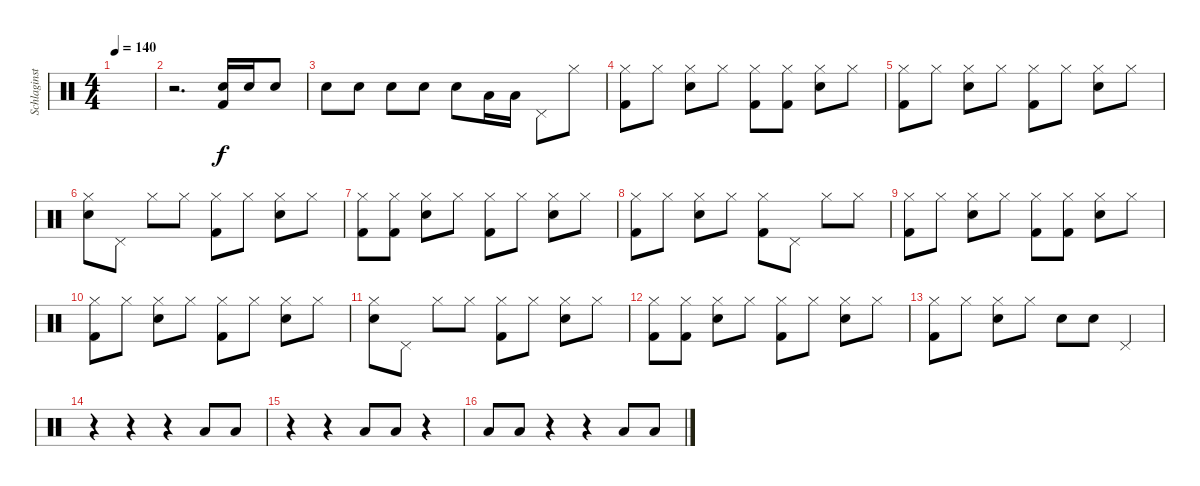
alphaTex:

\track ("Schlaginstrumente - Auswahl" "Schlaginst") {instrument percussion}
\staff {score}
\articulation defaults
\ts (4 4)
\tempo 140
\clef neutral
\ks c
|
r.2{d} ("Snare (hit) 2" "Kick (hit) 2").16 "Snare (hit) 2".16 "Snare (hit) 2".8 |
"Snare (hit) 2".8 "Snare (hit) 2".8 "Snare (hit) 2".8 "Snare (hit) 2".8 "Snare (hit) 2".8 "Low Tom (hit)".16 "Low Tom (hit)".16 "Pedal Hi-Hat (hit)".8 "Hi-Hat (closed)".8 |
("Hi-Hat (closed)" "Kick (hit) 2").8 "Hi-Hat (closed)".8 ("Hi-Hat (closed)" "Snare (hit) 2").8 "Hi-Hat (closed)".8 ("Hi-Hat (closed)" "Kick (hit) 2").8 ("Hi-Hat (closed)" "Kick (hit) 2").8 ("Hi-Hat (closed)" "Snare (hit) 2").8 "Hi-Hat (closed)".8 |
("Hi-Hat (closed)" "Kick (hit) 2").8 "Hi-Hat (closed)".8 ("Hi-Hat (closed)" "Snare (hit) 2").8 "Hi-Hat (closed)".8 ("Hi-Hat (closed)" "Kick (hit) 2").8 "Hi-Hat (closed)".8 ("Hi-Hat (closed)" "Snare (hit) 2").8 "Hi-Hat (closed)".8 |
("Hi-Hat (closed)" "Snare (hit) 2").8 "Pedal Hi-Hat (hit)".8 "Hi-Hat (closed)".8 "Hi-Hat (closed)".8 ("Hi-Hat (closed)" "Kick (hit) 2").8 "Hi-Hat (closed)".8 ("Hi-Hat (closed)" "Snare (hit) 2").8 "Hi-Hat (closed)".8 |
("Hi-Hat (closed)" "Kick (hit) 2").8 ("Hi-Hat (closed)" "Kick (hit) 2").8 ("Hi-Hat (closed)" "Snare (hit) 2").8 "Hi-Hat (closed)".8 ("Hi-Hat (closed)" "Kick (hit) 2").8 "Hi-Hat (closed)".8 ("Hi-Hat (closed)" "Snare (hit) 2").8 "Hi-Hat (closed)".8 |
("Hi-Hat (closed)" "Kick (hit) 2").8 "Hi-Hat (closed)".8 ("Hi-Hat (closed)" "Snare (hit) 2").8 "Hi-Hat (closed)".8 ("Hi-Hat (closed)" "Kick (hit) 2").8 "Pedal Hi-Hat (hit)".8 "Hi-Hat (closed)".8 "Hi-Hat (closed)".8 |
("Hi-Hat (closed)" "Kick (hit) 2").8 "Hi-Hat (closed)".8 ("Hi-Hat (closed)" "Snare (hit) 2").8 "Hi-Hat (closed)".8 ("Hi-Hat (closed)" "Kick (hit) 2").8 ("Hi-Hat (closed)" "Kick (hit) 2").8 ("Hi-Hat (closed)" "Snare (hit) 2").8 "Hi-Hat (closed)".8 |
("Hi-Hat (closed)" "Kick (hit) 2").8 "Hi-Hat (closed)".8 ("Hi-Hat (closed)" "Snare (hit) 2").8 "Hi-Hat (closed)".8 ("Hi-Hat (closed)" "Kick (hit) 2").8 "Hi-Hat (closed)".8 ("Hi-Hat (closed)" "Snare (hit) 2").8 "Hi-Hat (closed)".8 |
("Hi-Hat (closed)" "Snare (hit) 2").8 "Pedal Hi-Hat (hit)".8 "Hi-Hat (closed)".8 "Hi-Hat (closed)".8 ("Hi-Hat (closed)" "Kick (hit) 2").8 "Hi-Hat (closed)".8 ("Hi-Hat (closed)" "Snare (hit) 2").8 "Hi-Hat (closed)".8 |
("Hi-Hat (closed)" "Kick (hit) 2").8 ("Hi-Hat (closed)" "Kick (hit) 2").8 ("Hi-Hat (closed)" "Snare (hit) 2").8 "Hi-Hat (closed)".8 ("Hi-Hat (closed)" "Kick (hit) 2").8 "Hi-Hat (closed)".8 ("Hi-Hat (closed)" "Snare (hit) 2").8 "Hi-Hat (closed)".8 |
("Hi-Hat (closed)" "Kick (hit) 2").8 "Hi-Hat (closed)".8 ("Hi-Hat (closed)" "Snare (hit) 2").8 "Hi-Hat (closed)".8 "Snare (hit) 2".8 "Snare (hit) 2".8 "Pedal Hi-Hat (hit)".4 |
r.4 r.4 r.4 "Low Tom (hit)".8 "Low Tom (hit)".8 |
r.4 r.4 "Low Tom (hit)".8 "Low Tom (hit)".8 r.4 |
"Low Tom (hit)".8 "Low Tom (hit)".8 r.4 r.4 "Low Tom (hit)".8 "Low Tom (hit)".8
